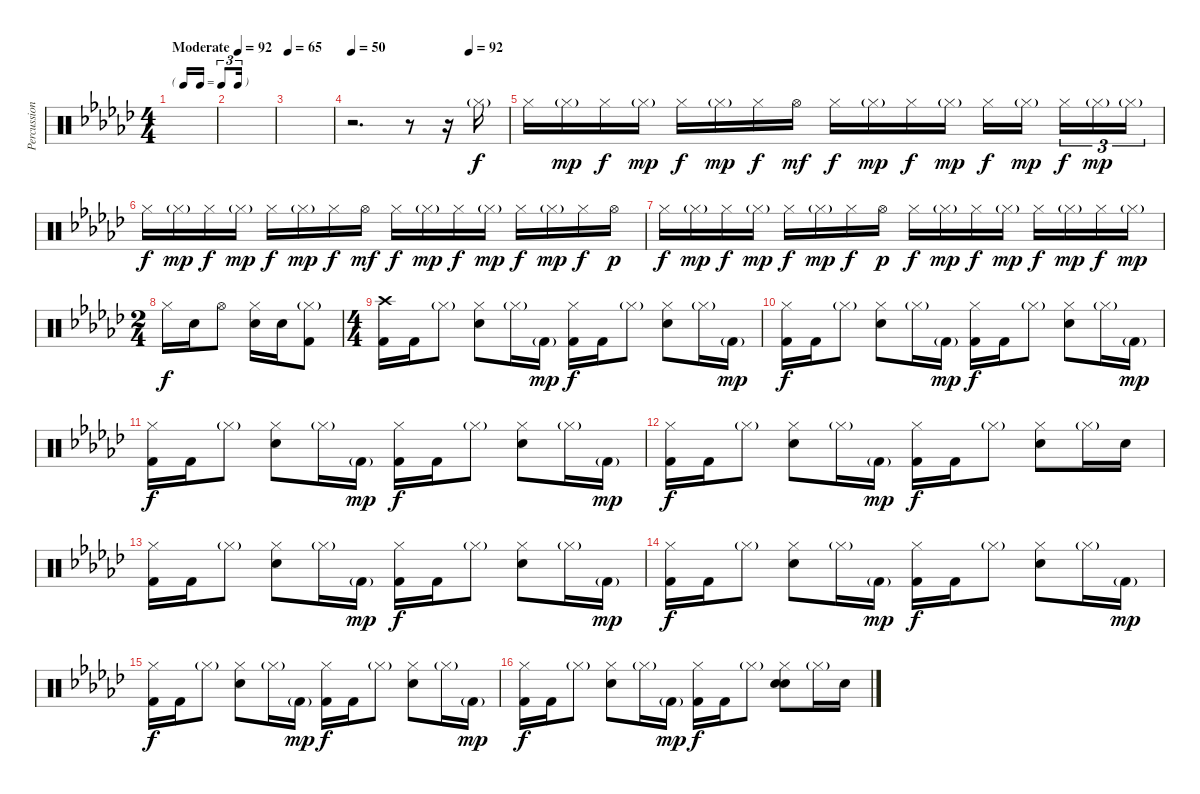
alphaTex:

\track ("Percussion" "Percussion") {instrument percussion}
\staff {score}
\articulation defaults
\ts (4 4)
\tf triplet16th
\tempo (92 "Moderate")
\tempo 85
\tempo (92 "Moderate")
\clef neutral
\ks ebminor
|
|
\tempo 65
|
\tempo 50
\tempo (92 0.75)
r.2{d} r.8 r.16 "Hi-Hat (closed)"{g}.16 |
"Hi-Hat (closed)".16{dy f} "Hi-Hat (closed)"{g}.16{dy mp} "Hi-Hat (closed)".16{dy f} "Hi-Hat (closed)"{g}.16{dy mp} "Hi-Hat (closed)".16{dy f} "Hi-Hat (closed)"{g}.16{dy mp} "Hi-Hat (closed)".16{dy f} "Hi-Hat (open)".16{dy mf} "Hi-Hat (closed)".16{dy f} "Hi-Hat (closed)"{g}.16{dy mp} "Hi-Hat (closed)".16{dy f} "Hi-Hat (closed)"{g}.16{dy mp} "Hi-Hat (closed)".16{dy f} "Hi-Hat (closed)"{g}.16{dy mp beam splitsecondary} "Hi-Hat (closed)".16{tu (3 2) dy f} "Hi-Hat (closed)"{g}.16{tu (3 2) dy mp} "Hi-Hat (closed)"{g}.16{tu (3 2)} |
"Hi-Hat (closed)".16{dy f} "Hi-Hat (closed)"{g}.16{dy mp} "Hi-Hat (closed)".16{dy f} "Hi-Hat (closed)"{g}.16{dy mp} "Hi-Hat (closed)".16{dy f} "Hi-Hat (closed)"{g}.16{dy mp} "Hi-Hat (closed)".16{dy f} "Hi-Hat (open)".16{dy mf} "Hi-Hat (closed)".16{dy f} "Hi-Hat (closed)"{g}.16{dy mp} "Hi-Hat (closed)".16{dy f} "Hi-Hat (closed)"{g}.16{dy mp} "Hi-Hat (closed)".16{dy f} "Hi-Hat (closed)"{g}.16{dy mp} "Hi-Hat (closed)".16{dy f} "Hi-Hat (open)".16{dy p} |
"Hi-Hat (closed)".16{dy f} "Hi-Hat (closed)"{g}.16{dy mp} "Hi-Hat (closed)".16{dy f} "Hi-Hat (closed)"{g}.16{dy mp} "Hi-Hat (closed)".16{dy f} "Hi-Hat (closed)"{g}.16{dy mp} "Hi-Hat (closed)".16{dy f} "Hi-Hat (open)".16{dy p} "Hi-Hat (closed)".16{dy f} "Hi-Hat (closed)"{g}.16{dy mp} "Hi-Hat (closed)".16{dy f} "Hi-Hat (closed)"{g}.16{dy mp} "Hi-Hat (closed)".16{dy f} "Hi-Hat (closed)"{g}.16{dy mp} "Hi-Hat (closed)".16{dy f} "Hi-Hat (closed)"{g}.16{dy mp} |
\ts (2 4)
"Hi-Hat (closed)".16{dy f} "Electric Snare (hit)".16 "Hi-Hat (open)".8 ("Hi-Hat (closed)" "Electric Snare (hit)").16 "Electric Snare (hit)".16 ("Hi-Hat (closed)"{g} "Kick (hit) 2").8 |
\ts (4 4)
("Crash high (hit)" "Kick (hit) 2").16 "Kick (hit) 2".16 "Hi-Hat (closed)"{g}.8 ("Hi-Hat (closed)" "Electric Snare (hit)").8 "Hi-Hat (closed)"{g}.16 "Kick (hit) 2"{g}.16{dy mp} ("Hi-Hat (closed)" "Kick (hit) 2").16{dy f} "Kick (hit) 2".16 "Hi-Hat (closed)"{g}.8 ("Hi-Hat (closed)" "Electric Snare (hit)").8 "Hi-Hat (closed)"{g}.16 "Kick (hit) 2"{g}.16{dy mp} |
("Hi-Hat (closed)" "Kick (hit) 2").16{dy f} "Kick (hit) 2".16 "Hi-Hat (closed)"{g}.8 ("Hi-Hat (closed)" "Electric Snare (hit)").8 "Hi-Hat (closed)"{g}.16 "Kick (hit) 2"{g}.16{dy mp} ("Hi-Hat (closed)" "Kick (hit) 2").16{dy f} "Kick (hit) 2".16 "Hi-Hat (closed)"{g}.8 ("Hi-Hat (closed)" "Electric Snare (hit)").8 "Hi-Hat (closed)"{g}.16 "Kick (hit) 2"{g}.16{dy mp} |
("Hi-Hat (closed)" "Kick (hit) 2").16{dy f} "Kick (hit) 2".16 "Hi-Hat (closed)"{g}.8 ("Hi-Hat (closed)" "Electric Snare (hit)").8 "Hi-Hat (closed)"{g}.16 "Kick (hit) 2"{g}.16{dy mp} ("Hi-Hat (closed)" "Kick (hit) 2").16{dy f} "Kick (hit) 2".16 "Hi-Hat (closed)"{g}.8 ("Hi-Hat (closed)" "Electric Snare (hit)").8 "Hi-Hat (closed)"{g}.16 "Kick (hit) 2"{g}.16{dy mp} |
("Hi-Hat (closed)" "Kick (hit) 2").16{dy f} "Kick (hit) 2".16 "Hi-Hat (closed)"{g}.8 ("Hi-Hat (closed)" "Electric Snare (hit)").8 "Hi-Hat (closed)"{g}.16 "Kick (hit) 2"{g}.16{dy mp} ("Hi-Hat (closed)" "Kick (hit) 2").16{dy f} "Kick (hit) 2".16 "Hi-Hat (closed)"{g}.8 ("Hi-Hat (closed)" "Electric Snare (hit)").8 "Hi-Hat (closed)"{g}.16 "Electric Snare (hit)".16 |
("Hi-Hat (closed)" "Kick (hit) 2").16 "Kick (hit) 2".16 "Hi-Hat (closed)"{g}.8 ("Hi-Hat (closed)" "Electric Snare (hit)").8 "Hi-Hat (closed)"{g}.16 "Kick (hit) 2"{g}.16{dy mp} ("Hi-Hat (closed)" "Kick (hit) 2").16{dy f} "Kick (hit) 2".16 "Hi-Hat (closed)"{g}.8 ("Hi-Hat (closed)" "Electric Snare (hit)").8 "Hi-Hat (closed)"{g}.16 "Kick (hit) 2"{g}.16{dy mp} |
("Hi-Hat (closed)" "Kick (hit) 2").16{dy f} "Kick (hit) 2".16 "Hi-Hat (closed)"{g}.8 ("Hi-Hat (closed)" "Electric Snare (hit)").8 "Hi-Hat (closed)"{g}.16 "Kick (hit) 2"{g}.16{dy mp} ("Hi-Hat (closed)" "Kick (hit) 2").16{dy f} "Kick (hit) 2".16 "Hi-Hat (closed)"{g}.8 ("Hi-Hat (closed)" "Electric Snare (hit)").8 "Hi-Hat (closed)"{g}.16 "Kick (hit) 2"{g}.16{dy mp} |
("Hi-Hat (closed)" "Kick (hit) 2").16{dy f} "Kick (hit) 2".16 "Hi-Hat (closed)"{g}.8 ("Hi-Hat (closed)" "Electric Snare (hit)").8 "Hi-Hat (closed)"{g}.16 "Kick (hit) 2"{g}.16{dy mp} ("Hi-Hat (closed)" "Kick (hit) 2").16{dy f} "Kick (hit) 2".16 "Hi-Hat (closed)"{g}.8 ("Hi-Hat (closed)" "Electric Snare (hit)").8 "Hi-Hat (closed)"{g}.16 "Kick (hit) 2"{g}.16{dy mp} |
("Hi-Hat (closed)" "Kick (hit) 2").16{dy f} "Kick (hit) 2".16 "Hi-Hat (closed)"{g}.8 ("Hi-Hat (closed)" "Electric Snare (hit)").8 "Hi-Hat (closed)"{g}.16 "Kick (hit) 2"{g}.16{dy mp} ("Hi-Hat (closed)" "Kick (hit) 2").16{dy f} "Kick (hit) 2".16 "Hi-Hat (closed)"{g}.8 ("Hi-Hat (closed)" "Hand Clap (hit)" "Electric Snare (hit)").8 "Hi-Hat (closed)"{g}.16 "Electric Snare (hit)".16
